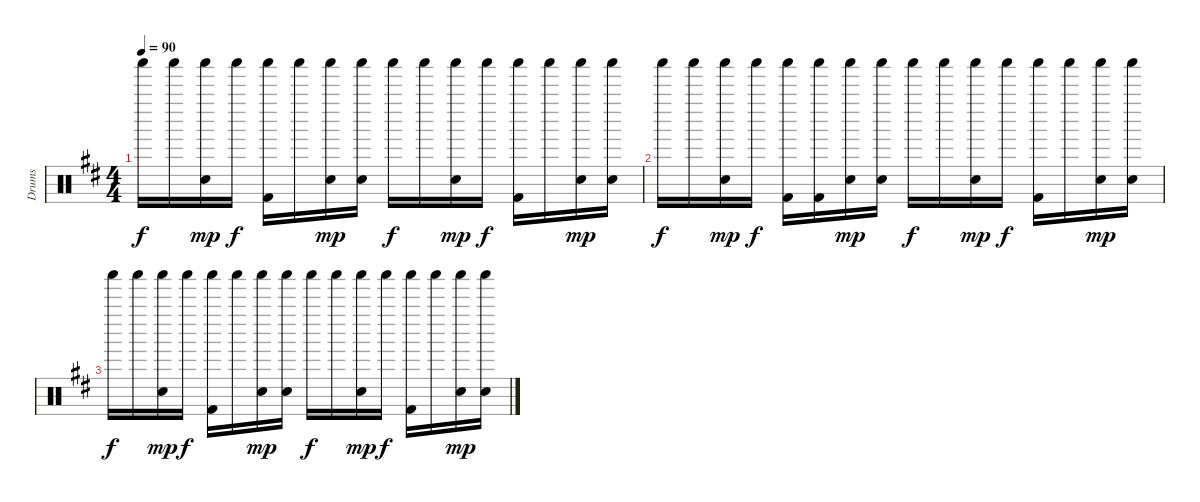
\track ("Drums" "Drums") {instrument percussion}
\staff {score}
\articulation defaults
\ts (4 4)
\tempo 90
\clef neutral
\ks bminor "Shaker (hit)".16{dy f volume 7} "Shaker (hit)".16
("Shaker (hit)" "Electric Snare (hit)").16{dy mp} "Shaker (hit)".16{dy f} ("Shaker (hit)" "Kick (hit) 2").16 "Shaker (hit)".16 ("Shaker (hit)" "Electric Snare (hit)").16{dy mp} ("Shaker (hit)" "Electric Snare (hit)").16 "Shaker (hit)".16{dy f} "Shaker (hit)".16 ("Shaker (hit)" "Electric Snare (hit)").16{dy mp} "Shaker (hit)".16{dy f} ("Shaker (hit)" "Kick (hit) 2").16 "Shaker (hit)".16 ("Shaker (hit)" "Electric Snare (hit)").16{dy mp} ("Shaker (hit)" "Electric Snare (hit)").16 |
"Shaker (hit)".16{dy f volume 4} "Shaker (hit)".16 ("Shaker (hit)" "Electric Snare (hit)").16{dy mp} "Shaker (hit)".16{dy f} ("Shaker (hit)" "Kick (hit) 2").16 ("Shaker (hit)" "Kick (hit) 2").16 ("Shaker (hit)" "Electric Snare (hit)").16{dy mp} ("Shaker (hit)" "Electric Snare (hit)").16 "Shaker (hit)".16{dy f} "Shaker (hit)".16 ("Shaker (hit)" "Electric Snare (hit)").16{dy mp} "Shaker (hit)".16{dy f} ("Shaker (hit)" "Kick (hit) 2").16 "Shaker (hit)".16 ("Shaker (hit)" "Electric Snare (hit)").16{dy mp} ("Shaker (hit)" "Electric Snare (hit)").16 |
"Shaker (hit)".16{dy f volume 2} "Shaker (hit)".16 ("Shaker (hit)" "Electric Snare (hit)").16{dy mp} "Shaker (hit)".16{dy f} ("Shaker (hit)" "Kick (hit) 2").16 "Shaker (hit)".16 ("Shaker (hit)" "Electric Snare (hit)").16{dy mp} ("Shaker (hit)" "Electric Snare (hit)").16 "Shaker (hit)".16{dy f} "Shaker (hit)".16 ("Shaker (hit)" "Electric Snare (hit)").16{dy mp} "Shaker (hit)".16{dy f} ("Shaker (hit)" "Kick (hit) 2").16 "Shaker (hit)".16 ("Shaker (hit)" "Electric Snare (hit)").16{dy mp} ("Shaker (hit)" "Electric Snare (hit)").16
